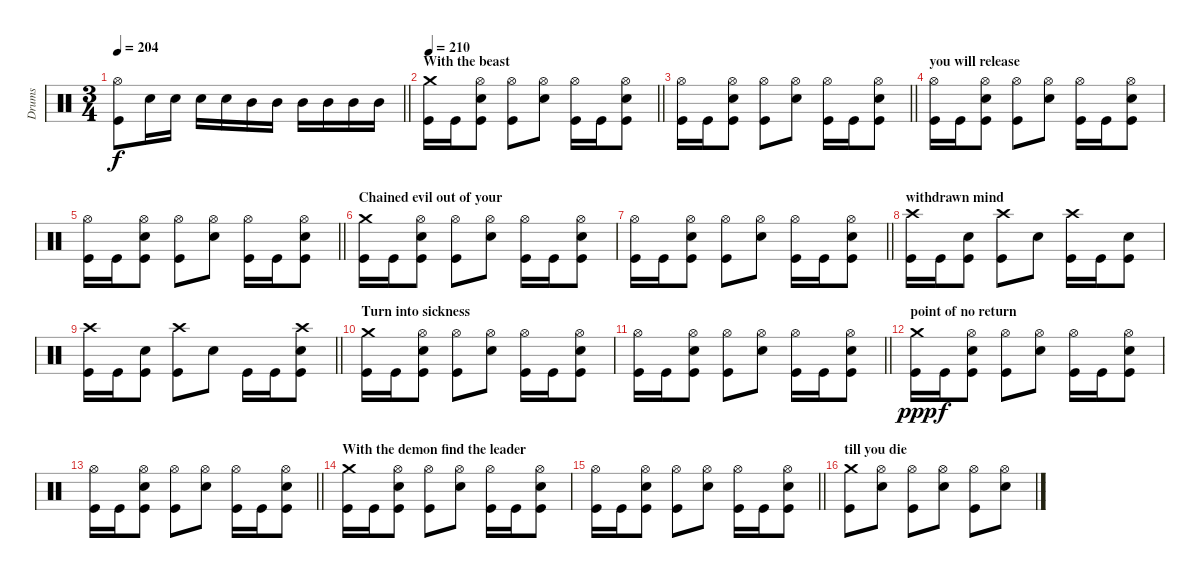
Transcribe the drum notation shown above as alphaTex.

\track ("Drums" "Drums") {instrument percussion}
\staff {score}
\articulation defaults
\ts (3 4)
\tempo 204
\clef neutral
\barLineRight lightlight
\ks c
("Hi-Hat (open)" "Kick (hit)").8{dy f} "Snare (hit) 2".16 "Snare (hit) 2".16 "Snare (hit) 2".16 "Snare (hit) 2".16 "Mid Tom (hit)".16 "Mid Tom (hit)".16 "Mid Tom (hit)".16 "Mid Tom (hit)".16 "Mid Tom (hit)".16 "Mid Tom (hit)".16 |
\section ("" "With the beast ")
\tempo 210
\barLineRight lightlight
("Crash medium (hit)" "Kick (hit)").16 "Kick (hit)".16 ("Hi-Hat (open)" "Snare (hit) 2" "Kick (hit)").8 ("Hi-Hat (open)" "Kick (hit)").8 ("Hi-Hat (open)" "Snare (hit) 2").8 ("Hi-Hat (open)" "Kick (hit)").16 "Kick (hit)".16 ("Hi-Hat (open)" "Snare (hit) 2" "Kick (hit)").8 |
\barLineRight lightlight
("Hi-Hat (open)" "Kick (hit)").16 "Kick (hit)".16 ("Hi-Hat (open)" "Snare (hit) 2" "Kick (hit)").8 ("Hi-Hat (open)" "Kick (hit)").8 ("Hi-Hat (open)" "Snare (hit) 2").8 ("Hi-Hat (open)" "Kick (hit)").16 "Kick (hit)".16 ("Hi-Hat (open)" "Snare (hit) 2" "Kick (hit)").8 |
\section ("" "you will release")
("Hi-Hat (open)" "Kick (hit)").16 "Kick (hit)".16 ("Hi-Hat (open)" "Snare (hit) 2" "Kick (hit)").8 ("Hi-Hat (open)" "Kick (hit)").8 ("Hi-Hat (open)" "Snare (hit) 2").8 ("Hi-Hat (open)" "Kick (hit)").16 "Kick (hit)".16 ("Hi-Hat (open)" "Snare (hit) 2" "Kick (hit)").8 |
\barLineRight lightlight
("Hi-Hat (open)" "Kick (hit)").16 "Kick (hit)".16 ("Hi-Hat (open)" "Snare (hit) 2" "Kick (hit)").8 ("Hi-Hat (open)" "Kick (hit)").8 ("Hi-Hat (open)" "Snare (hit) 2").8 ("Hi-Hat (open)" "Kick (hit)").16 "Kick (hit)".16 ("Hi-Hat (open)" "Snare (hit) 2" "Kick (hit)").8 |
\section ("" "Chained evil out of your ")
("Crash medium (hit)" "Kick (hit)").16 "Kick (hit)".16 ("Hi-Hat (open)" "Snare (hit) 2" "Kick (hit)").8 ("Hi-Hat (open)" "Kick (hit)").8 ("Hi-Hat (open)" "Snare (hit) 2").8 ("Hi-Hat (open)" "Kick (hit)").16 "Kick (hit)".16 ("Hi-Hat (open)" "Snare (hit) 2" "Kick (hit)").8 |
\barLineRight lightlight
("Hi-Hat (open)" "Kick (hit)").16 "Kick (hit)".16 ("Hi-Hat (open)" "Snare (hit) 2" "Kick (hit)").8 ("Hi-Hat (open)" "Kick (hit)").8 ("Hi-Hat (open)" "Snare (hit) 2").8 ("Hi-Hat (open)" "Kick (hit)").16 "Kick (hit)".16 ("Hi-Hat (open)" "Snare (hit) 2" "Kick (hit)").8 |
\section ("" "withdrawn mind")
("Crash high (hit)" "Kick (hit)").16 "Kick (hit)".16 ("Snare (hit) 2" "Kick (hit)").8 ("Crash high (hit)" "Kick (hit)").8 "Snare (hit) 2".8 ("Crash high (hit)" "Kick (hit)").16 "Kick (hit)".16 ("Snare (hit) 2" "Kick (hit)").8 |
\barLineRight lightlight
("Crash high (hit)" "Kick (hit)").16 "Kick (hit)".16 ("Snare (hit) 2" "Kick (hit)").8 ("Crash high (hit)" "Kick (hit)").8 "Snare (hit) 2".8 "Kick (hit)".16 "Kick (hit)".16 ("Crash high (hit)" "Snare (hit) 2" "Kick (hit)").8 |
\section ("" "Turn into sickness ")
("Crash medium (hit)" "Kick (hit)").16 "Kick (hit)".16 ("Hi-Hat (open)" "Snare (hit) 2" "Kick (hit)").8 ("Hi-Hat (open)" "Kick (hit)").8 ("Hi-Hat (open)" "Snare (hit) 2").8 ("Hi-Hat (open)" "Kick (hit)").16 "Kick (hit)".16 ("Hi-Hat (open)" "Snare (hit) 2" "Kick (hit)").8 |
\barLineRight lightlight
("Hi-Hat (open)" "Kick (hit)").16 "Kick (hit)".16 ("Hi-Hat (open)" "Snare (hit) 2" "Kick (hit)").8 ("Hi-Hat (open)" "Kick (hit)").8 ("Hi-Hat (open)" "Snare (hit) 2").8 ("Hi-Hat (open)" "Kick (hit)").16 "Kick (hit)".16 ("Hi-Hat (open)" "Snare (hit) 2" "Kick (hit)").8 |
\section ("" "point of no return")
("Crash medium (hit)" "Kick (hit)").16{dy ppp} "Kick (hit)".16{dy f} ("Hi-Hat (open)" "Snare (hit) 2" "Kick (hit)").8 ("Hi-Hat (open)" "Kick (hit)").8 ("Hi-Hat (open)" "Snare (hit) 2").8 ("Hi-Hat (open)" "Kick (hit)").16 "Kick (hit)".16 ("Hi-Hat (open)" "Snare (hit) 2" "Kick (hit)").8 |
\barLineRight lightlight
("Hi-Hat (open)" "Kick (hit)").16 "Kick (hit)".16 ("Hi-Hat (open)" "Snare (hit) 2" "Kick (hit)").8 ("Hi-Hat (open)" "Kick (hit)").8 ("Hi-Hat (open)" "Snare (hit) 2").8 ("Hi-Hat (open)" "Kick (hit)").16 "Kick (hit)".16 ("Hi-Hat (open)" "Snare (hit) 2" "Kick (hit)").8 |
\section ("" "With the demon find the leader ")
("Crash medium (hit)" "Kick (hit)").16 "Kick (hit)".16 ("Hi-Hat (open)" "Snare (hit) 2" "Kick (hit)").8 ("Hi-Hat (open)" "Kick (hit)").8 ("Hi-Hat (open)" "Snare (hit) 2").8 ("Hi-Hat (open)" "Kick (hit)").16 "Kick (hit)".16 ("Hi-Hat (open)" "Snare (hit) 2" "Kick (hit)").8 |
\barLineRight lightlight
("Hi-Hat (open)" "Kick (hit)").16 "Kick (hit)".16 ("Hi-Hat (open)" "Snare (hit) 2" "Kick (hit)").8 ("Hi-Hat (open)" "Kick (hit)").8 ("Hi-Hat (open)" "Snare (hit) 2").8 ("Hi-Hat (open)" "Kick (hit)").16 "Kick (hit)".16 ("Hi-Hat (open)" "Snare (hit) 2" "Kick (hit)").8 |
\section ("" "till you die")
("Crash medium (hit)" "Kick (hit)").8 ("Hi-Hat (open)" "Snare (hit) 2").8 ("Hi-Hat (open)" "Kick (hit)").8 ("Hi-Hat (open)" "Snare (hit) 2").8 ("Hi-Hat (open)" "Kick (hit)").8 ("Hi-Hat (open)" "Snare (hit) 2").8
